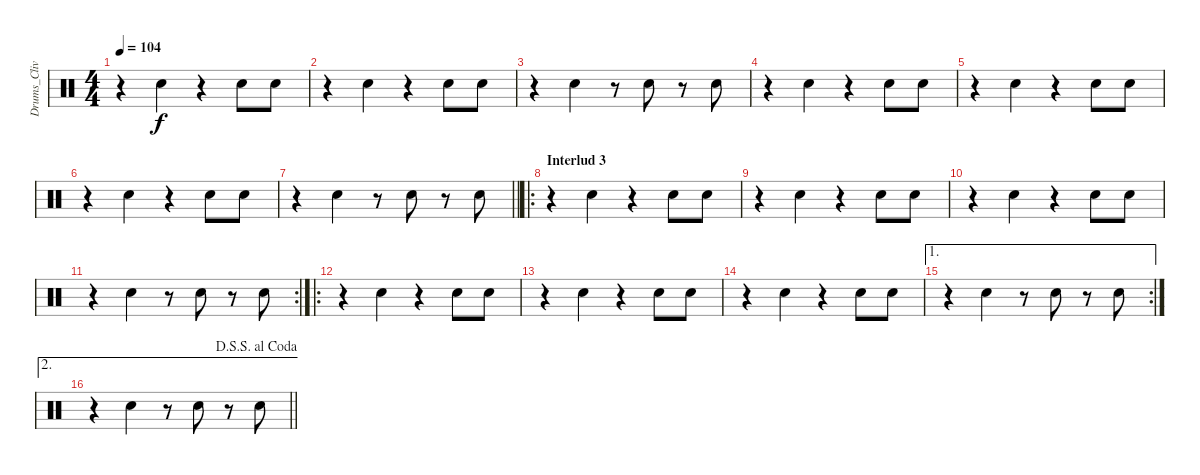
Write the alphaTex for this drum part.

\track ("Drums_CliveBurr" "Drums_Cliv") {instrument percussion}
\staff {score}
\articulation defaults
\ts (4 4)
\tempo 104
\clef neutral
\ks c
r.4{dy f} "Snare (hit) 2".4 r.4 "Snare (hit) 2".8 "Snare (hit) 2".8 |
r.4 "Snare (hit) 2".4 r.4 "Snare (hit) 2".8 "Snare (hit) 2".8 |
r.4 "Snare (hit) 2".4 r.8 "Snare (hit) 2".8 r.8 "Snare (hit) 2".8 |
r.4 "Snare (hit) 2".4 r.4 "Snare (hit) 2".8 "Snare (hit) 2".8 |
r.4 "Snare (hit) 2".4 r.4 "Snare (hit) 2".8 "Snare (hit) 2".8 |
r.4 "Snare (hit) 2".4 r.4 "Snare (hit) 2".8 "Snare (hit) 2".8 |
\barLineRight lightlight
r.4 "Snare (hit) 2".4 r.8 "Snare (hit) 2".8 r.8 "Snare (hit) 2".8 |
\ro
\section ("" "Interlud 3")
r.4 "Snare (hit) 2".4 r.4 "Snare (hit) 2".8 "Snare (hit) 2".8 |
r.4 "Snare (hit) 2".4 r.4 "Snare (hit) 2".8 "Snare (hit) 2".8 |
r.4 "Snare (hit) 2".4 r.4 "Snare (hit) 2".8 "Snare (hit) 2".8 |
\rc 2
r.4 "Snare (hit) 2".4 r.8 "Snare (hit) 2".8 r.8 "Snare (hit) 2".8 |
\ro
r.4 "Snare (hit) 2".4 r.4 "Snare (hit) 2".8 "Snare (hit) 2".8 |
r.4 "Snare (hit) 2".4 r.4 "Snare (hit) 2".8 "Snare (hit) 2".8 |
r.4 "Snare (hit) 2".4 r.4 "Snare (hit) 2".8 "Snare (hit) 2".8 |
\ae 1
\rc 2
r.4 "Snare (hit) 2".4 r.8 "Snare (hit) 2".8 r.8 "Snare (hit) 2".8 |
\ae 2
\jump dalsegnosegnoalcoda
\barLineRight lightlight
r.4 "Snare (hit) 2".4 r.8 "Snare (hit) 2".8 r.8 "Snare (hit) 2".8
